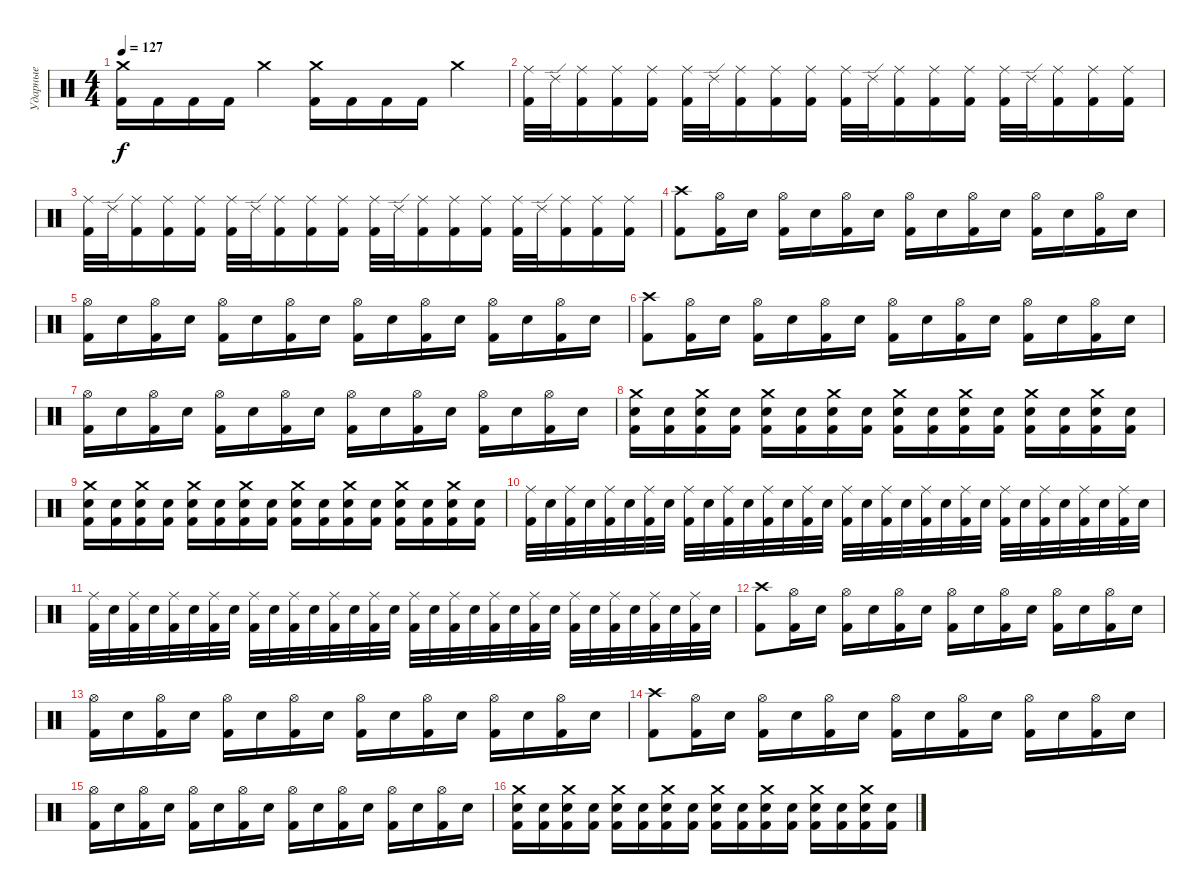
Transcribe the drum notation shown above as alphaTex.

\track ("Ударные" "Ударные") {instrument percussion bank 1}
\staff {score}
\articulation defaults
\ts (4 4)
\tempo 127
\clef neutral
\ks c
("Crash medium (hit)" "Kick (hit) 2").16{dy f} "Kick (hit) 2".16 "Kick (hit) 2".16 "Kick (hit) 2".16 "Crash medium (hit)".4 ("Crash medium (hit)" "Kick (hit) 2").16 "Kick (hit) 2".16 "Kick (hit) 2".16 "Kick (hit) 2".16 "Crash medium (hit)".4 |
("Ride (middle)" "Kick (hit) 2").32 "Ride (edge) 2".32 ("Ride (middle)" "Kick (hit) 2").16 ("Ride (middle)" "Kick (hit) 2").16 ("Ride (middle)" "Kick (hit) 2").16 ("Ride (middle)" "Kick (hit) 2").32 "Ride (edge) 2".32 ("Ride (middle)" "Kick (hit) 2").16 ("Ride (middle)" "Kick (hit) 2").16 ("Ride (middle)" "Kick (hit) 2").16 ("Ride (middle)" "Kick (hit) 2").32 "Ride (edge) 2".32 ("Ride (middle)" "Kick (hit) 2").16 ("Ride (middle)" "Kick (hit) 2").16 ("Ride (middle)" "Kick (hit) 2").16 ("Ride (middle)" "Kick (hit) 2").32 "Ride (edge) 2".32 ("Ride (middle)" "Kick (hit) 2").16 ("Ride (middle)" "Kick (hit) 2").16 ("Ride (middle)" "Kick (hit) 2").16 |
("Ride (middle)" "Kick (hit) 2").32 "Ride (edge) 2".32 ("Ride (middle)" "Kick (hit) 2").16 ("Ride (middle)" "Kick (hit) 2").16 ("Ride (middle)" "Kick (hit) 2").16 ("Ride (middle)" "Kick (hit) 2").32 "Ride (edge) 2".32 ("Ride (middle)" "Kick (hit) 2").16 ("Ride (middle)" "Kick (hit) 2").16 ("Ride (middle)" "Kick (hit) 2").16 ("Ride (middle)" "Kick (hit) 2").32 "Ride (edge) 2".32 ("Ride (middle)" "Kick (hit) 2").16 ("Ride (middle)" "Kick (hit) 2").16 ("Ride (middle)" "Kick (hit) 2").16 ("Ride (middle)" "Kick (hit) 2").32 "Ride (edge) 2".32 ("Ride (middle)" "Kick (hit) 2").16 ("Ride (middle)" "Kick (hit) 2").16 ("Ride (middle)" "Kick (hit) 2").16 |
("Crash high (hit)" "Kick (hit) 2").8 ("Hi-Hat (open)" "Kick (hit) 2").16 "Electric Snare (hit)".16 ("Hi-Hat (open)" "Kick (hit) 2").16 "Electric Snare (hit)".16 ("Hi-Hat (open)" "Kick (hit) 2").16 "Electric Snare (hit)".16 ("Hi-Hat (open)" "Kick (hit) 2").16 "Electric Snare (hit)".16 ("Hi-Hat (open)" "Kick (hit) 2").16 "Electric Snare (hit)".16 ("Hi-Hat (open)" "Kick (hit) 2").16 "Electric Snare (hit)".16 ("Hi-Hat (open)" "Kick (hit) 2").16 "Electric Snare (hit)".16 |
("Hi-Hat (open)" "Kick (hit) 2").16 "Electric Snare (hit)".16 ("Hi-Hat (open)" "Kick (hit) 2").16 "Electric Snare (hit)".16 ("Hi-Hat (open)" "Kick (hit) 2").16 "Electric Snare (hit)".16 ("Hi-Hat (open)" "Kick (hit) 2").16 "Electric Snare (hit)".16 ("Hi-Hat (open)" "Kick (hit) 2").16 "Electric Snare (hit)".16 ("Hi-Hat (open)" "Kick (hit) 2").16 "Electric Snare (hit)".16 ("Hi-Hat (open)" "Kick (hit) 2").16 "Electric Snare (hit)".16 ("Hi-Hat (open)" "Kick (hit) 2").16 "Electric Snare (hit)".16 |
("Crash high (hit)" "Kick (hit) 2").8 ("Hi-Hat (open)" "Kick (hit) 2").16 "Electric Snare (hit)".16 ("Hi-Hat (open)" "Kick (hit) 2").16 "Electric Snare (hit)".16 ("Hi-Hat (open)" "Kick (hit) 2").16 "Electric Snare (hit)".16 ("Hi-Hat (open)" "Kick (hit) 2").16 "Electric Snare (hit)".16 ("Hi-Hat (open)" "Kick (hit) 2").16 "Electric Snare (hit)".16 ("Hi-Hat (open)" "Kick (hit) 2").16 "Electric Snare (hit)".16 ("Hi-Hat (open)" "Kick (hit) 2").16 "Electric Snare (hit)".16 |
("Hi-Hat (open)" "Kick (hit) 2").16 "Electric Snare (hit)".16 ("Hi-Hat (open)" "Kick (hit) 2").16 "Electric Snare (hit)".16 ("Hi-Hat (open)" "Kick (hit) 2").16 "Electric Snare (hit)".16 ("Hi-Hat (open)" "Kick (hit) 2").16 "Electric Snare (hit)".16 ("Hi-Hat (open)" "Kick (hit) 2").16 "Electric Snare (hit)".16 ("Hi-Hat (open)" "Kick (hit) 2").16 "Electric Snare (hit)".16 ("Hi-Hat (open)" "Kick (hit) 2").16 "Electric Snare (hit)".16 ("Hi-Hat (open)" "Kick (hit) 2").16 "Electric Snare (hit)".16 |
("Crash medium (hit)" "Electric Snare (hit)" "Kick (hit) 2").16 ("Electric Snare (hit)" "Kick (hit) 2").16 ("Crash medium (hit)" "Electric Snare (hit)" "Kick (hit) 2").16 ("Electric Snare (hit)" "Kick (hit) 2").16 ("Crash medium (hit)" "Electric Snare (hit)" "Kick (hit) 2").16 ("Electric Snare (hit)" "Kick (hit) 2").16 ("Crash medium (hit)" "Electric Snare (hit)" "Kick (hit) 2").16 ("Electric Snare (hit)" "Kick (hit) 2").16 ("Crash medium (hit)" "Electric Snare (hit)" "Kick (hit) 2").16 ("Electric Snare (hit)" "Kick (hit) 2").16 ("Crash medium (hit)" "Electric Snare (hit)" "Kick (hit) 2").16 ("Electric Snare (hit)" "Kick (hit) 2").16 ("Crash medium (hit)" "Electric Snare (hit)" "Kick (hit) 2").16 ("Electric Snare (hit)" "Kick (hit) 2").16 ("Crash medium (hit)" "Electric Snare (hit)" "Kick (hit) 2").16 ("Electric Snare (hit)" "Kick (hit) 2").16 |
("Crash medium (hit)" "Electric Snare (hit)" "Kick (hit) 2").16 ("Electric Snare (hit)" "Kick (hit) 2").16 ("Crash medium (hit)" "Electric Snare (hit)" "Kick (hit) 2").16 ("Electric Snare (hit)" "Kick (hit) 2").16 ("Crash medium (hit)" "Electric Snare (hit)" "Kick (hit) 2").16 ("Electric Snare (hit)" "Kick (hit) 2").16 ("Crash medium (hit)" "Electric Snare (hit)" "Kick (hit) 2").16 ("Electric Snare (hit)" "Kick (hit) 2").16 ("Crash medium (hit)" "Electric Snare (hit)" "Kick (hit) 2").16 ("Electric Snare (hit)" "Kick (hit) 2").16 ("Crash medium (hit)" "Electric Snare (hit)" "Kick (hit) 2").16 ("Electric Snare (hit)" "Kick (hit) 2").16 ("Crash medium (hit)" "Electric Snare (hit)" "Kick (hit) 2").16 ("Electric Snare (hit)" "Kick (hit) 2").16 ("Crash medium (hit)" "Electric Snare (hit)" "Kick (hit) 2").16 ("Electric Snare (hit)" "Kick (hit) 2").16 |
("Ride (middle)" "Kick (hit) 2").32 "Electric Snare (hit)".32 ("Ride (middle)" "Kick (hit) 2").32 "Electric Snare (hit)".32 ("Ride (middle)" "Kick (hit) 2").32 "Electric Snare (hit)".32 ("Ride (middle)" "Kick (hit) 2").32 "Electric Snare (hit)".32 ("Ride (middle)" "Kick (hit) 2").32 "Electric Snare (hit)".32 ("Ride (middle)" "Kick (hit) 2").32 "Electric Snare (hit)".32 ("Ride (middle)" "Kick (hit) 2").32 "Electric Snare (hit)".32 ("Ride (middle)" "Kick (hit) 2").32 "Electric Snare (hit)".32 ("Ride (middle)" "Kick (hit) 2").32 "Electric Snare (hit)".32 ("Ride (middle)" "Kick (hit) 2").32 "Electric Snare (hit)".32 ("Ride (middle)" "Kick (hit) 2").32 "Electric Snare (hit)".32 ("Ride (middle)" "Kick (hit) 2").32 "Electric Snare (hit)".32 ("Ride (middle)" "Kick (hit) 2").32 "Electric Snare (hit)".32 ("Ride (middle)" "Kick (hit) 2").32 "Electric Snare (hit)".32 ("Ride (middle)" "Kick (hit) 2").32 "Electric Snare (hit)".32 ("Ride (middle)" "Kick (hit) 2").32 "Electric Snare (hit)".32 |
("Ride (middle)" "Kick (hit) 2").32 "Electric Snare (hit)".32 ("Ride (middle)" "Kick (hit) 2").32 "Electric Snare (hit)".32 ("Ride (middle)" "Kick (hit) 2").32 "Electric Snare (hit)".32 ("Ride (middle)" "Kick (hit) 2").32 "Electric Snare (hit)".32 ("Ride (middle)" "Kick (hit) 2").32 "Electric Snare (hit)".32 ("Ride (middle)" "Kick (hit) 2").32 "Electric Snare (hit)".32 ("Ride (middle)" "Kick (hit) 2").32 "Electric Snare (hit)".32 ("Ride (middle)" "Kick (hit) 2").32 "Electric Snare (hit)".32 ("Ride (middle)" "Kick (hit) 2").32 "Electric Snare (hit)".32 ("Ride (middle)" "Kick (hit) 2").32 "Electric Snare (hit)".32 ("Ride (middle)" "Kick (hit) 2").32 "Electric Snare (hit)".32 ("Ride (middle)" "Kick (hit) 2").32 "Electric Snare (hit)".32 ("Ride (middle)" "Kick (hit) 2").32 "Electric Snare (hit)".32 ("Ride (middle)" "Kick (hit) 2").32 "Electric Snare (hit)".32 ("Ride (middle)" "Kick (hit) 2").32 "Electric Snare (hit)".32 ("Ride (middle)" "Kick (hit) 2").32 "Electric Snare (hit)".32 |
("Crash high (hit)" "Kick (hit) 2").8 ("Hi-Hat (open)" "Kick (hit) 2").16 "Electric Snare (hit)".16 ("Hi-Hat (open)" "Kick (hit) 2").16 "Electric Snare (hit)".16 ("Hi-Hat (open)" "Kick (hit) 2").16 "Electric Snare (hit)".16 ("Hi-Hat (open)" "Kick (hit) 2").16 "Electric Snare (hit)".16 ("Hi-Hat (open)" "Kick (hit) 2").16 "Electric Snare (hit)".16 ("Hi-Hat (open)" "Kick (hit) 2").16 "Electric Snare (hit)".16 ("Hi-Hat (open)" "Kick (hit) 2").16 "Electric Snare (hit)".16 |
("Hi-Hat (open)" "Kick (hit) 2").16 "Electric Snare (hit)".16 ("Hi-Hat (open)" "Kick (hit) 2").16 "Electric Snare (hit)".16 ("Hi-Hat (open)" "Kick (hit) 2").16 "Electric Snare (hit)".16 ("Hi-Hat (open)" "Kick (hit) 2").16 "Electric Snare (hit)".16 ("Hi-Hat (open)" "Kick (hit) 2").16 "Electric Snare (hit)".16 ("Hi-Hat (open)" "Kick (hit) 2").16 "Electric Snare (hit)".16 ("Hi-Hat (open)" "Kick (hit) 2").16 "Electric Snare (hit)".16 ("Hi-Hat (open)" "Kick (hit) 2").16 "Electric Snare (hit)".16 |
("Crash high (hit)" "Kick (hit) 2").8 ("Hi-Hat (open)" "Kick (hit) 2").16 "Electric Snare (hit)".16 ("Hi-Hat (open)" "Kick (hit) 2").16 "Electric Snare (hit)".16 ("Hi-Hat (open)" "Kick (hit) 2").16 "Electric Snare (hit)".16 ("Hi-Hat (open)" "Kick (hit) 2").16 "Electric Snare (hit)".16 ("Hi-Hat (open)" "Kick (hit) 2").16 "Electric Snare (hit)".16 ("Hi-Hat (open)" "Kick (hit) 2").16 "Electric Snare (hit)".16 ("Hi-Hat (open)" "Kick (hit) 2").16 "Electric Snare (hit)".16 |
("Hi-Hat (open)" "Kick (hit) 2").16 "Electric Snare (hit)".16 ("Hi-Hat (open)" "Kick (hit) 2").16 "Electric Snare (hit)".16 ("Hi-Hat (open)" "Kick (hit) 2").16 "Electric Snare (hit)".16 ("Hi-Hat (open)" "Kick (hit) 2").16 "Electric Snare (hit)".16 ("Hi-Hat (open)" "Kick (hit) 2").16 "Electric Snare (hit)".16 ("Hi-Hat (open)" "Kick (hit) 2").16 "Electric Snare (hit)".16 ("Hi-Hat (open)" "Kick (hit) 2").16 "Electric Snare (hit)".16 ("Hi-Hat (open)" "Kick (hit) 2").16 "Electric Snare (hit)".16 |
("Crash medium (hit)" "Electric Snare (hit)" "Kick (hit) 2").16 ("Electric Snare (hit)" "Kick (hit) 2").16 ("Crash medium (hit)" "Electric Snare (hit)" "Kick (hit) 2").16 ("Electric Snare (hit)" "Kick (hit) 2").16 ("Crash medium (hit)" "Electric Snare (hit)" "Kick (hit) 2").16 ("Electric Snare (hit)" "Kick (hit) 2").16 ("Crash medium (hit)" "Electric Snare (hit)" "Kick (hit) 2").16 ("Electric Snare (hit)" "Kick (hit) 2").16 ("Crash medium (hit)" "Electric Snare (hit)" "Kick (hit) 2").16 ("Electric Snare (hit)" "Kick (hit) 2").16 ("Crash medium (hit)" "Electric Snare (hit)" "Kick (hit) 2").16 ("Electric Snare (hit)" "Kick (hit) 2").16 ("Crash medium (hit)" "Electric Snare (hit)" "Kick (hit) 2").16 ("Electric Snare (hit)" "Kick (hit) 2").16 ("Crash medium (hit)" "Electric Snare (hit)" "Kick (hit) 2").16 ("Electric Snare (hit)" "Kick (hit) 2").16
